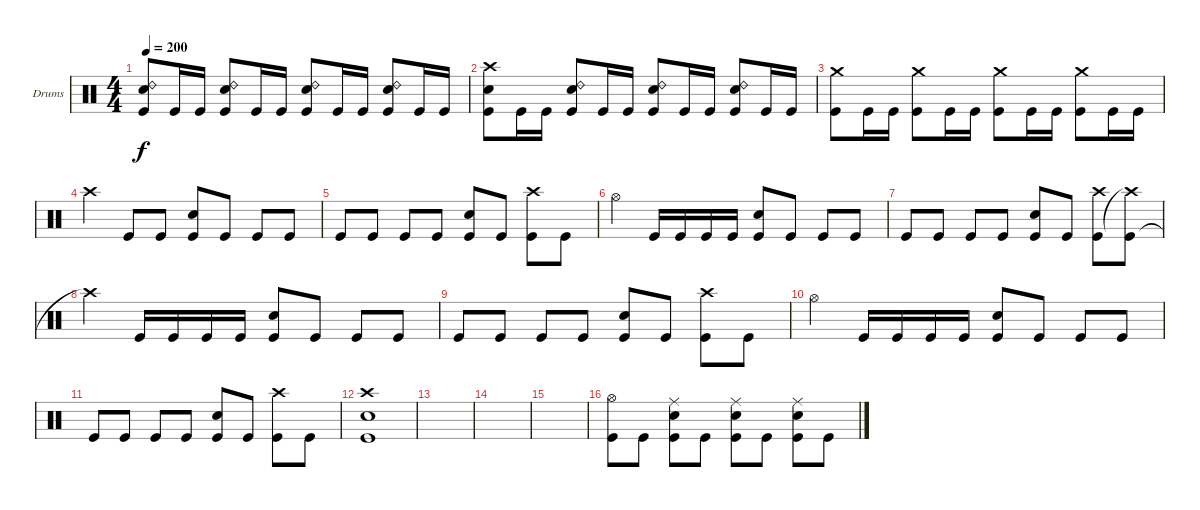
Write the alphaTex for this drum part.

\bracketExtendMode groupsimilarinstruments
\firstSystemTrackNameOrientation horizontal
\otherSystemsTrackNameOrientation horizontal
\track ("Canadien" "Drums") {instrument percussion}
\staff {score}
\articulation defaults
\ts (4 4)
\tempo 200
\clef neutral
\ks c
("Ride (bell) 2" "Snare (hit) 2" "Kick (hit)").8{dy f} "Kick (hit)".16 "Kick (hit)".16 ("Ride (bell) 2" "Snare (hit) 2" "Kick (hit)").8 "Kick (hit)".16 "Kick (hit)".16 ("Ride (bell) 2" "Snare (hit) 2" "Kick (hit)").8 "Kick (hit)".16 "Kick (hit)".16 ("Ride (bell) 2" "Snare (hit) 2" "Kick (hit)").8 "Kick (hit)".16 "Kick (hit)".16 |
("Crash high (hit)" "Snare (hit) 2" "Kick (hit)").8 "Kick (hit)".16 "Kick (hit)".16 ("Ride (bell) 2" "Snare (hit) 2" "Kick (hit)").8 "Kick (hit)".16 "Kick (hit)".16 ("Ride (bell) 2" "Snare (hit) 2" "Kick (hit)").8 "Kick (hit)".16 "Kick (hit)".16 ("Ride (bell) 2" "Snare (hit) 2" "Kick (hit)").8 "Kick (hit)".16 "Kick (hit)".16 |
("Crash medium (hit)" "Kick (hit)").8 "Kick (hit)".16 "Kick (hit)".16 ("Crash medium (hit)" "Kick (hit)").8 "Kick (hit)".16 "Kick (hit)".16 ("Crash medium (hit)" "Kick (hit)").8 "Kick (hit)".16 "Kick (hit)".16 ("Crash medium (hit)" "Kick (hit)").8 "Kick (hit)".16 "Kick (hit)".16 |
"Crash high (hit)".4 "Kick (hit)".8 "Kick (hit)".8 ("Snare (hit) 2" "Kick (hit)").8 "Kick (hit)".8 "Kick (hit)".8 "Kick (hit)".8 |
"Kick (hit)".8 "Kick (hit)".8 "Kick (hit)".8 "Kick (hit)".8 ("Snare (hit) 2" "Kick (hit)").8 "Kick (hit)".8 ("Crash high (hit)" "Kick (hit)").8 "Kick (hit)".8 |
"Hi-Hat (open)".4 "Kick (hit)".16 "Kick (hit)".16 "Kick (hit)".16 "Kick (hit)".16 ("Snare (hit) 2" "Kick (hit)").8 "Kick (hit)".8 "Kick (hit)".8 "Kick (hit)".8 |
"Kick (hit)".8 "Kick (hit)".8 "Kick (hit)".8 "Kick (hit)".8 ("Snare (hit) 2" "Kick (hit)").8 "Kick (hit)".8 ("Crash high (hit)" "Kick (hit)").8 ("Kick (hit)" "Crash high (hit)"{t}).8 |
"Crash high (hit)"{t}.4 "Kick (hit)".16 "Kick (hit)".16 "Kick (hit)".16 "Kick (hit)".16 ("Snare (hit) 2" "Kick (hit)").8 "Kick (hit)".8 "Kick (hit)".8 "Kick (hit)".8 |
"Kick (hit)".8 "Kick (hit)".8 "Kick (hit)".8 "Kick (hit)".8 ("Snare (hit) 2" "Kick (hit)").8 "Kick (hit)".8 ("Crash high (hit)" "Kick (hit)").8 "Kick (hit)".8 |
"Hi-Hat (open)".4 "Kick (hit)".16 "Kick (hit)".16 "Kick (hit)".16 "Kick (hit)".16 ("Snare (hit) 2" "Kick (hit)").8 "Kick (hit)".8 "Kick (hit)".8 "Kick (hit)".8 |
"Kick (hit)".8 "Kick (hit)".8 "Kick (hit)".8 "Kick (hit)".8 ("Snare (hit) 2" "Kick (hit)").8 "Kick (hit)".8 ("Crash high (hit)" "Kick (hit)").8 "Kick (hit)".8 |
("Crash high (hit)" "Kick (hit)" "Snare (hit) 2").1 |
|
|
|
("Hi-Hat (open)" "Kick (hit)").8 "Kick (hit)".8 ("Ride (middle)" "Snare (hit) 2" "Kick (hit)").8 "Kick (hit)".8 ("Ride (middle)" "Snare (hit) 2" "Kick (hit)").8 "Kick (hit)".8 ("Ride (middle)" "Snare (hit) 2" "Kick (hit)").8 "Kick (hit)".8
